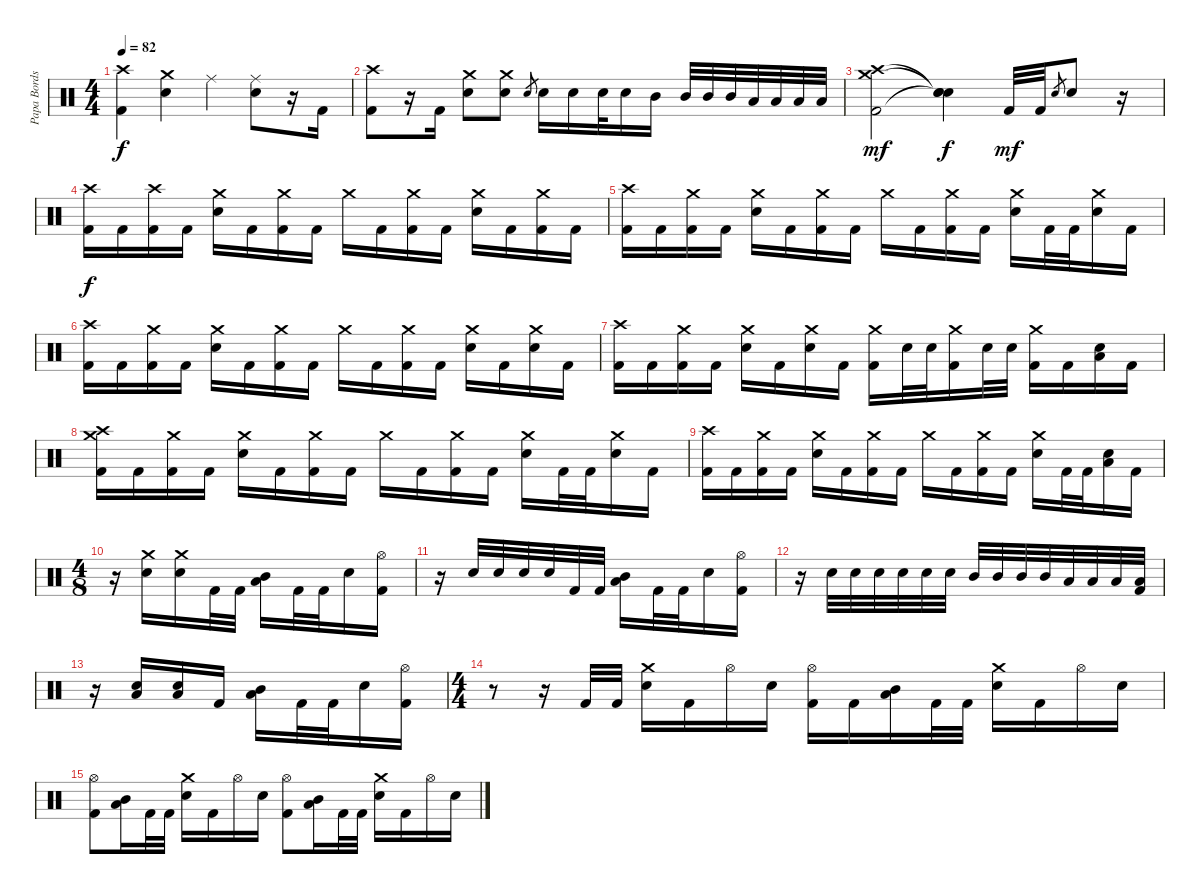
\track ("Papa Bords" "Papa Bords") {instrument percussion}
\staff {score}
\articulation defaults
\ts (4 4)
\tempo 82
\clef neutral
\ks c
("Crash high (hit)" "Kick (hit) 2").4{dy f} ("Crash medium (hit)" "Electric Snare (hit)").4 "Ride (middle)".4 ("Ride (middle)" "Electric Snare (hit)").8 r.16 "Kick (hit) 2".16 |
("Crash high (hit)" "Kick (hit) 2").8 r.16 "Kick (hit) 2".16 ("Crash medium (hit)" "Electric Snare (hit)").8 ("Crash medium (hit)" "Electric Snare (hit)").8 "Electric Snare (hit)".8{gr} "Electric Snare (hit)".16 "Electric Snare (hit)".16 "Electric Snare (hit)".32 "Electric Snare (hit)".16 "Mid Tom (hit)".16 "Mid Tom (hit)".32 "Mid Tom (hit)".32 "Mid Tom (hit)".32 "Low Floor Tom (hit)".32 "Low Floor Tom (hit)".32 "Low Floor Tom (hit)".32 "Low Floor Tom (hit)".32 |
("Crash high (hit)" "Crash medium (hit)" "Kick (hit) 2").2{dy mf} ("Snare (hit)"{t} "Snare (hit)"{t} "Snare (hit)"{t}).4{dy f} "Kick (hit) 2".32{dy mf} "Kick (hit) 2".32 "Electric Snare (hit)".8{gr} "Electric Snare (hit)".8 r.16 |
("Crash high (hit)" "Kick (hit) 2").16{dy f} "Kick (hit) 2".16 ("Crash high (hit)" "Kick (hit) 2").16 "Kick (hit) 2".16 ("Crash medium (hit)" "Electric Snare (hit)").16 "Kick (hit) 2".16 ("Crash medium (hit)" "Kick (hit) 2").16 "Kick (hit) 2".16 "Crash medium (hit)".16 "Kick (hit) 2".16 ("Crash medium (hit)" "Kick (hit) 2").16 "Kick (hit) 2".16 ("Crash medium (hit)" "Electric Snare (hit)").16 "Kick (hit) 2".16 ("Crash medium (hit)" "Kick (hit) 2").16 "Kick (hit) 2".16 |
("Crash high (hit)" "Kick (hit) 2").16 "Kick (hit) 2".16 ("Crash medium (hit)" "Kick (hit) 2").16 "Kick (hit) 2".16 ("Crash medium (hit)" "Electric Snare (hit)").16 "Kick (hit) 2".16 ("Crash medium (hit)" "Kick (hit) 2").16 "Kick (hit) 2".16 "Crash medium (hit)".16 "Kick (hit) 2".16 ("Crash medium (hit)" "Kick (hit) 2").16 "Kick (hit) 2".16 ("Crash medium (hit)" "Electric Snare (hit)").16 "Kick (hit) 2".32 "Kick (hit) 2".32 ("Crash medium (hit)" "Electric Snare (hit)").16 "Kick (hit) 2".16 |
("Crash high (hit)" "Kick (hit) 2").16 "Kick (hit) 2".16 ("Crash medium (hit)" "Kick (hit) 2").16 "Kick (hit) 2".16 ("Crash medium (hit)" "Electric Snare (hit)").16 "Kick (hit) 2".16 ("Crash medium (hit)" "Kick (hit) 2").16 "Kick (hit) 2".16 "Crash medium (hit)".16 "Kick (hit) 2".16 ("Crash medium (hit)" "Kick (hit) 2").16 "Kick (hit) 2".16 ("Crash medium (hit)" "Electric Snare (hit)").16 "Kick (hit) 2".16 ("Crash medium (hit)" "Electric Snare (hit)").16 "Kick (hit) 2".16 |
("Crash high (hit)" "Kick (hit) 2").16 "Kick (hit) 2".16 ("Crash medium (hit)" "Kick (hit) 2").16 "Kick (hit) 2".16 ("Crash medium (hit)" "Electric Snare (hit)").16 "Kick (hit) 2".16 ("Crash medium (hit)" "Electric Snare (hit)").16 "Kick (hit) 2".16 ("Crash medium (hit)" "Kick (hit) 2").16 "Electric Snare (hit)".32 "Electric Snare (hit)".32 ("Crash medium (hit)" "Kick (hit) 2").16 "Electric Snare (hit)".32 "Electric Snare (hit)".32 ("Crash medium (hit)" "Kick (hit) 2").16 "Kick (hit) 2".16 ("Low Floor Tom (hit)" "Electric Snare (hit)").16 "Kick (hit) 2".16 |
("Crash high (hit)" "Crash medium (hit)" "Kick (hit) 2").16 "Kick (hit) 2".16 ("Crash medium (hit)" "Kick (hit) 2").16 "Kick (hit) 2".16 ("Crash medium (hit)" "Electric Snare (hit)").16 "Kick (hit) 2".16 ("Crash medium (hit)" "Kick (hit) 2").16 "Kick (hit) 2".16 "Crash medium (hit)".16 "Kick (hit) 2".16 ("Crash medium (hit)" "Kick (hit) 2").16 "Kick (hit) 2".16 ("Crash medium (hit)" "Electric Snare (hit)").16 "Kick (hit) 2".32 "Kick (hit) 2".32 ("Crash medium (hit)" "Electric Snare (hit)").16 "Kick (hit) 2".16 |
("Crash high (hit)" "Kick (hit) 2").16 "Kick (hit) 2".16 ("Crash medium (hit)" "Kick (hit) 2").16 "Kick (hit) 2".16 ("Crash medium (hit)" "Electric Snare (hit)").16 "Kick (hit) 2".16 ("Crash medium (hit)" "Kick (hit) 2").16 "Kick (hit) 2".16 "Crash medium (hit)".16 "Kick (hit) 2".16 ("Crash medium (hit)" "Kick (hit) 2").16 "Kick (hit) 2".16 ("Crash medium (hit)" "Electric Snare (hit)").16 "Kick (hit) 2".32 "Kick (hit) 2".32 ("Low Floor Tom (hit)" "Electric Snare (hit)").16 "Kick (hit) 2".16 |
\ts (4 8)
r.16 ("Crash medium (hit)" "Electric Snare (hit)").16 ("Crash medium (hit)" "Electric Snare (hit)").16 "Kick (hit) 2".32 "Kick (hit) 2".32 ("Low Floor Tom (hit)" "Mid Tom (hit)").16 "Kick (hit) 2".32 "Kick (hit) 2".32 "Electric Snare (hit)".16 ("Hi-Hat (open)" "Kick (hit) 2").16 |
r.16 "Electric Snare (hit)".32 "Electric Snare (hit)".32 "Electric Snare (hit)".32 "Electric Snare (hit)".32 "Kick (hit) 2".32 "Kick (hit) 2".32 ("Low Floor Tom (hit)" "Mid Tom (hit)").16 "Kick (hit) 2".32 "Kick (hit) 2".32 "Electric Snare (hit)".16 ("Hi-Hat (open)" "Kick (hit) 2").16 |
r.16 "Electric Snare (hit)".32 "Electric Snare (hit)".32 "Electric Snare (hit)".32 "Electric Snare (hit)".32 "Electric Snare (hit)".32 "Electric Snare (hit)".32 "Mid Tom (hit)".32 "Mid Tom (hit)".32 "Mid Tom (hit)".32 "Mid Tom (hit)".32 "Low Floor Tom (hit)".32 "Low Floor Tom (hit)".32 "Low Floor Tom (hit)".32 ("Low Floor Tom (hit)" "Kick (hit) 2").32 |
r.16 ("Low Floor Tom (hit)" "Electric Snare (hit)").16 ("Low Floor Tom (hit)" "Electric Snare (hit)").16 "Kick (hit) 2".16 ("Low Floor Tom (hit)" "Mid Tom (hit)").16 "Kick (hit) 2".32 "Kick (hit) 2".32 "Electric Snare (hit)".16 ("Hi-Hat (open)" "Kick (hit) 2").16 |
\ts (4 4)
r.8 r.16 "Kick (hit) 2".32 "Kick (hit) 2".32 ("Crash medium (hit)" "Electric Snare (hit)").16 "Kick (hit) 2".16 "Hi-Hat (open)".16 "Electric Snare (hit)".16 ("Hi-Hat (open)" "Kick (hit) 2").16 "Kick (hit) 2".16 ("Low Floor Tom (hit)" "Mid Tom (hit)").16 "Kick (hit) 2".32 "Kick (hit) 2".32 ("Crash medium (hit)" "Electric Snare (hit)").16 "Kick (hit) 2".16 "Hi-Hat (open)".16 "Electric Snare (hit)".16 |
("Hi-Hat (open)" "Kick (hit) 2").8 ("Low Floor Tom (hit)" "Mid Tom (hit)").16 "Kick (hit) 2".32 "Kick (hit) 2".32 ("Crash medium (hit)" "Electric Snare (hit)").16 "Kick (hit) 2".16 "Hi-Hat (open)".16 "Electric Snare (hit)".16 ("Hi-Hat (open)" "Kick (hit) 2").8 ("Low Floor Tom (hit)" "Mid Tom (hit)").16 "Kick (hit) 2".32 "Kick (hit) 2".32 ("Crash medium (hit)" "Electric Snare (hit)").16 "Kick (hit) 2".16 "Hi-Hat (open)".16 "Electric Snare (hit)".16
